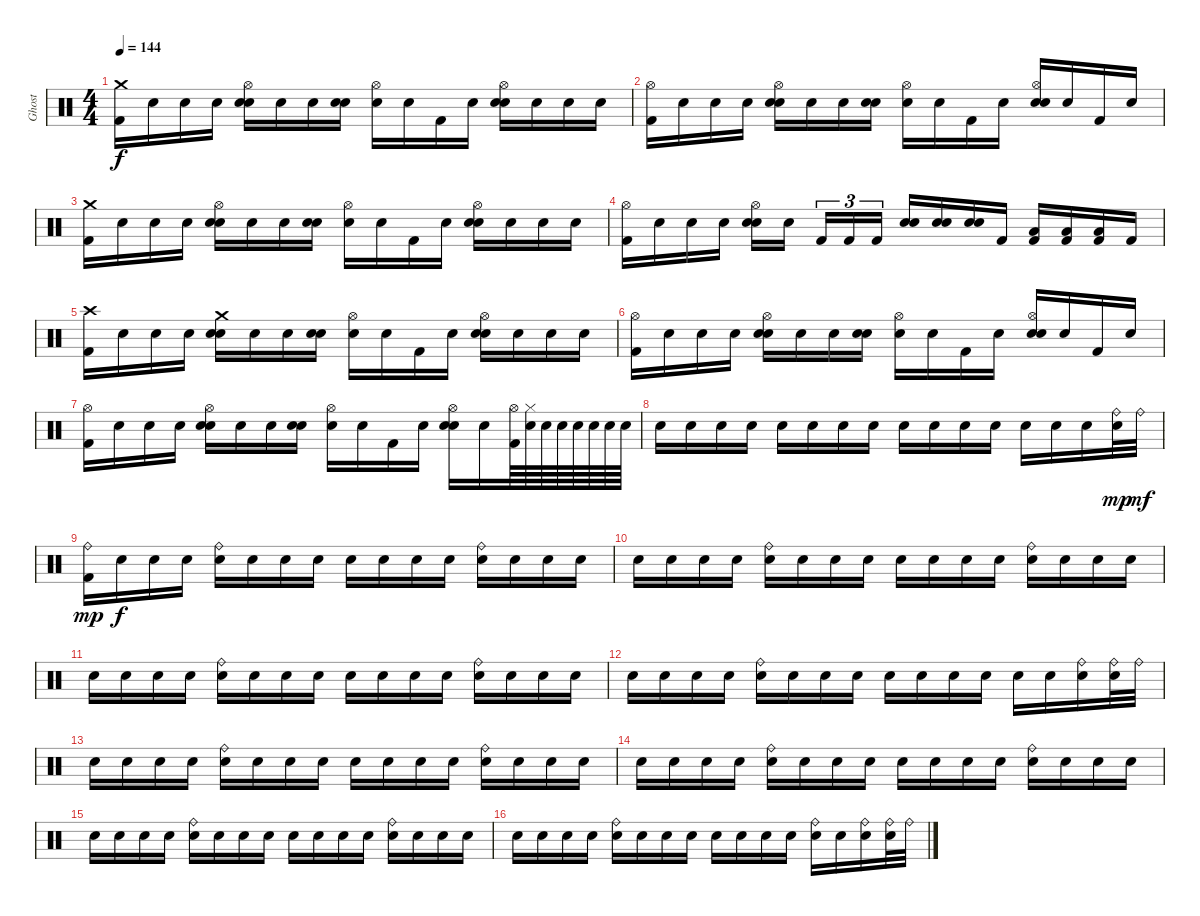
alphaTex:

\track ("Ghost" "Ghost") {instrument percussion}
\staff {score}
\articulation defaults
\ts (4 4)
\tempo 144
\clef neutral
\ks c
("Crash medium (hit)" "Kick (hit) 2").16{dy f} "Snare (hit)".16 "Snare (hit)".16 "Snare (hit)".16 ("Hi-Hat (open)" "Electric Snare (hit)" "Snare (hit)").16 "Snare (hit)".16 "Snare (hit)".16 ("Electric Snare (hit)" "Snare (hit)").16 ("Hi-Hat (open)" "Snare (hit)").16 "Snare (hit)".16 "Kick (hit) 2".16 "Snare (hit)".16 ("Hi-Hat (open)" "Electric Snare (hit)" "Snare (hit)").16 "Snare (hit)".16 "Snare (hit)".16 "Snare (hit)".16 |
("Hi-Hat (open)" "Kick (hit) 2").16 "Snare (hit)".16 "Snare (hit)".16 "Snare (hit)".16 ("Hi-Hat (open)" "Electric Snare (hit)" "Snare (hit)").16 "Snare (hit)".16 "Snare (hit)".16 ("Electric Snare (hit)" "Snare (hit)").16 ("Hi-Hat (open)" "Snare (hit)").16 "Snare (hit)".16 "Kick (hit) 2".16 "Snare (hit)".16 ("Hi-Hat (open)" "Electric Snare (hit)" "Snare (hit)").16 "Snare (hit)".16 "Kick (hit) 2".16 "Snare (hit)".16 |
("Crash medium (hit)" "Kick (hit) 2").16 "Snare (hit)".16 "Snare (hit)".16 "Snare (hit)".16 ("Hi-Hat (open)" "Electric Snare (hit)" "Snare (hit)").16 "Snare (hit)".16 "Snare (hit)".16 ("Electric Snare (hit)" "Snare (hit)").16 ("Hi-Hat (open)" "Snare (hit)").16 "Snare (hit)".16 "Kick (hit) 2".16 "Snare (hit)".16 ("Hi-Hat (open)" "Electric Snare (hit)" "Snare (hit)").16 "Snare (hit)".16 "Snare (hit)".16 "Snare (hit)".16 |
("Hi-Hat (open)" "Kick (hit) 2").16 "Snare (hit)".16 "Snare (hit)".16 "Snare (hit)".16 ("Hi-Hat (open)" "Electric Snare (hit)" "Snare (hit)").16 "Snare (hit)".16{beam splitsecondary} "Kick (hit) 2".16{tu (3 2)} "Kick (hit) 2".16{tu (3 2)} "Kick (hit) 2".16{tu (3 2)} ("Electric Snare (hit)" "Snare (hit)").16 ("Electric Snare (hit)" "Snare (hit)").16 ("Electric Snare (hit)" "Snare (hit)").16 "Kick (hit) 2".16 ("Low Tom (hit)" "Kick (hit) 2").16 ("Low Tom (hit)" "Kick (hit) 2").16 ("Low Tom (hit)" "Kick (hit) 2").16 "Kick (hit) 2".16 |
("Crash high (hit)" "Kick (hit) 2").16 "Snare (hit)".16 "Snare (hit)".16 "Snare (hit)".16 ("Crash medium (hit)" "Electric Snare (hit)" "Snare (hit)").16 "Snare (hit)".16 "Snare (hit)".16 ("Electric Snare (hit)" "Snare (hit)").16 ("Hi-Hat (open)" "Snare (hit)").16 "Snare (hit)".16 "Kick (hit) 2".16 "Snare (hit)".16 ("Hi-Hat (open)" "Electric Snare (hit)" "Snare (hit)").16 "Snare (hit)".16 "Snare (hit)".16 "Snare (hit)".16 |
("Hi-Hat (open)" "Kick (hit) 2").16 "Snare (hit)".16 "Snare (hit)".16 "Snare (hit)".16 ("Hi-Hat (open)" "Electric Snare (hit)" "Snare (hit)").16 "Snare (hit)".16 "Snare (hit)".16 ("Electric Snare (hit)" "Snare (hit)").16 ("Hi-Hat (open)" "Snare (hit)").16 "Snare (hit)".16 "Kick (hit) 2".16 "Snare (hit)".16 ("Hi-Hat (open)" "Electric Snare (hit)" "Snare (hit)").16 "Snare (hit)".16 "Kick (hit) 2".16 "Snare (hit)".16 |
("Hi-Hat (open)" "Kick (hit) 2").16 "Snare (hit)".16 "Snare (hit)".16 "Snare (hit)".16 ("Hi-Hat (open)" "Electric Snare (hit)" "Snare (hit)").16 "Snare (hit)".16 "Snare (hit)".16 ("Electric Snare (hit)" "Snare (hit)").16 ("Hi-Hat (open)" "Snare (hit)").16 "Snare (hit)".16 "Kick (hit) 2".16 "Snare (hit)".16 ("Hi-Hat (open)" "Electric Snare (hit)" "Snare (hit)").16 "Snare (hit)".16 ("Hi-Hat (open)" "Kick (hit) 2").64 ("Hi-Hat (closed)" "Snare (hit)").64 "Snare (hit)".64 "Snare (hit)".64 "Snare (hit)".64 "Snare (hit)".64 "Snare (hit)".64 "Snare (hit)".64 |
"Snare (hit)".16 "Snare (hit)".16 "Snare (hit)".16 "Snare (hit)".16 "Snare (hit)".16 "Snare (hit)".16 "Snare (hit)".16 "Snare (hit)".16 "Snare (hit)".16 "Snare (hit)".16 "Snare (hit)".16 "Snare (hit)".16 "Snare (hit)".16 "Snare (hit)".16 "Snare (hit)".16 ("Ride (bell)" "Snare (hit)").32{dy mp} "Ride (bell)".32{dy mf} |
("Ride (bell)" "Kick (hit) 2").16{dy mp} "Snare (hit)".16{dy f} "Snare (hit)".16 "Snare (hit)".16 ("Ride (bell)" "Snare (hit)").16 "Snare (hit)".16 "Snare (hit)".16 "Snare (hit)".16 "Snare (hit)".16 "Snare (hit)".16 "Snare (hit)".16 "Snare (hit)".16 ("Ride (bell)" "Snare (hit)").16 "Snare (hit)".16 "Snare (hit)".16 "Snare (hit)".16 |
"Snare (hit)".16 "Snare (hit)".16 "Snare (hit)".16 "Snare (hit)".16 ("Ride (bell)" "Snare (hit)").16 "Snare (hit)".16 "Snare (hit)".16 "Snare (hit)".16 "Snare (hit)".16 "Snare (hit)".16 "Snare (hit)".16 "Snare (hit)".16 ("Ride (bell)" "Snare (hit)").16 "Snare (hit)".16 "Snare (hit)".16 "Snare (hit)".16 |
"Snare (hit)".16 "Snare (hit)".16 "Snare (hit)".16 "Snare (hit)".16 ("Ride (bell)" "Snare (hit)").16 "Snare (hit)".16 "Snare (hit)".16 "Snare (hit)".16 "Snare (hit)".16 "Snare (hit)".16 "Snare (hit)".16 "Snare (hit)".16 ("Ride (bell)" "Snare (hit)").16 "Snare (hit)".16 "Snare (hit)".16 "Snare (hit)".16 |
"Snare (hit)".16 "Snare (hit)".16 "Snare (hit)".16 "Snare (hit)".16 ("Ride (bell)" "Snare (hit)").16 "Snare (hit)".16 "Snare (hit)".16 "Snare (hit)".16 "Snare (hit)".16 "Snare (hit)".16 "Snare (hit)".16 "Snare (hit)".16 "Snare (hit)".16 "Snare (hit)".16 ("Ride (bell)" "Snare (hit)").16 ("Ride (bell)" "Snare (hit)").32 "Ride (bell)".32 |
"Snare (hit)".16 "Snare (hit)".16 "Snare (hit)".16 "Snare (hit)".16 ("Ride (bell)" "Snare (hit)").16 "Snare (hit)".16 "Snare (hit)".16 "Snare (hit)".16 "Snare (hit)".16 "Snare (hit)".16 "Snare (hit)".16 "Snare (hit)".16 ("Ride (bell)" "Snare (hit)").16 "Snare (hit)".16 "Snare (hit)".16 "Snare (hit)".16 |
"Snare (hit)".16 "Snare (hit)".16 "Snare (hit)".16 "Snare (hit)".16 ("Ride (bell)" "Snare (hit)").16 "Snare (hit)".16 "Snare (hit)".16 "Snare (hit)".16 "Snare (hit)".16 "Snare (hit)".16 "Snare (hit)".16 "Snare (hit)".16 ("Ride (bell)" "Snare (hit)").16 "Snare (hit)".16 "Snare (hit)".16 "Snare (hit)".16 |
"Snare (hit)".16 "Snare (hit)".16 "Snare (hit)".16 "Snare (hit)".16 ("Ride (bell)" "Snare (hit)").16 "Snare (hit)".16 "Snare (hit)".16 "Snare (hit)".16 "Snare (hit)".16 "Snare (hit)".16 "Snare (hit)".16 "Snare (hit)".16 ("Ride (bell)" "Snare (hit)").16 "Snare (hit)".16 "Snare (hit)".16 "Snare (hit)".16 |
"Snare (hit)".16 "Snare (hit)".16 "Snare (hit)".16 "Snare (hit)".16 ("Ride (bell)" "Snare (hit)").16 "Snare (hit)".16 "Snare (hit)".16 "Snare (hit)".16 "Snare (hit)".16 "Snare (hit)".16 "Snare (hit)".16 "Snare (hit)".16 ("Ride (bell)" "Snare (hit)").16 "Snare (hit)".16 ("Ride (bell)" "Snare (hit)").16 ("Ride (bell)" "Snare (hit)").32 "Ride (bell)".32
